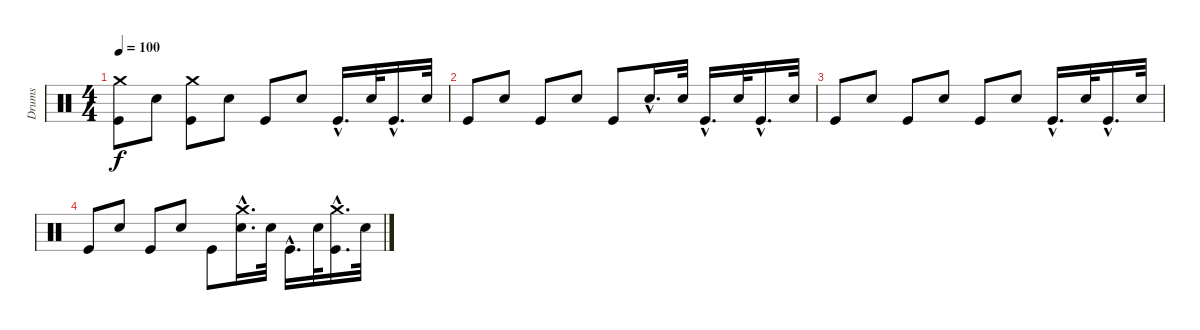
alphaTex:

\track ("Drums" "Drums") {instrument percussion}
\staff {score}
\articulation defaults
\ts (4 4)
\tempo 100
\clef neutral
\ks c
("Crash medium (hit)" "Kick (hit)").8{dy f} "Electric Snare (hit)".8 ("Crash medium (hit)" "Kick (hit)").8 "Electric Snare (hit)".8 "Kick (hit)".8 "Electric Snare (hit)".8 "Kick (hit)"{hac}.16{d} "Electric Snare (hit)".32 "Kick (hit)"{hac}.16{d} "Electric Snare (hit)".32 |
"Kick (hit)".8 "Electric Snare (hit)".8 "Kick (hit)".8 "Electric Snare (hit)".8 "Kick (hit)".8 "Electric Snare (hit)"{hac}.16{d} "Electric Snare (hit)".32 "Kick (hit)"{hac}.16{d} "Electric Snare (hit)".32 "Kick (hit)"{hac}.16{d} "Electric Snare (hit)".32 |
"Kick (hit)".8 "Electric Snare (hit)".8 "Kick (hit)".8 "Electric Snare (hit)".8 "Kick (hit)".8 "Electric Snare (hit)".8 "Kick (hit)"{hac}.16{d} "Electric Snare (hit)".32 "Kick (hit)"{hac}.16{d} "Electric Snare (hit)".32 |
"Kick (hit)".8 "Electric Snare (hit)".8 "Kick (hit)".8 "Electric Snare (hit)".8 "Kick (hit)".8 ("Crash medium (hit)"{hac} "Electric Snare (hit)"{hac}).16{d} "Electric Snare (hit)".32 "Kick (hit)"{hac}.16{d} "Electric Snare (hit)".32 ("Crash medium (hit)"{hac} "Kick (hit)"{hac}).16{d} "Electric Snare (hit)".32
